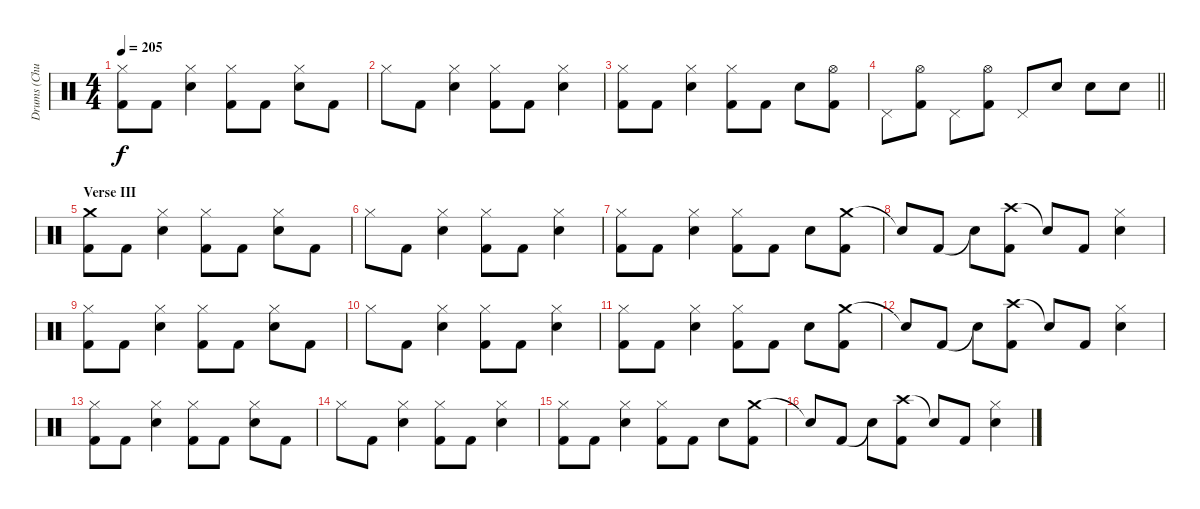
\track ("Drums (Chuck Behler)" "Drums (Chu") {instrument percussion}
\staff {score}
\articulation defaults
\ts (4 4)
\tempo 205
\clef neutral
\ks c
("Hi-Hat (closed)" "Kick (hit) 2").8{dy f} "Kick (hit) 2".8 ("Hi-Hat (closed)" "Electric Snare (hit)").4 ("Hi-Hat (closed)" "Kick (hit) 2").8 "Kick (hit) 2".8 ("Hi-Hat (closed)" "Electric Snare (hit)").8 "Kick (hit) 2".8 |
"Hi-Hat (closed)".8 "Kick (hit) 2".8 ("Hi-Hat (closed)" "Electric Snare (hit)").4 ("Hi-Hat (closed)" "Kick (hit) 2").8 "Kick (hit) 2".8 ("Hi-Hat (closed)" "Electric Snare (hit)").4 |
("Hi-Hat (closed)" "Kick (hit) 2").8 "Kick (hit) 2".8 ("Hi-Hat (closed)" "Electric Snare (hit)").4 ("Hi-Hat (closed)" "Kick (hit) 2").8 "Kick (hit) 2".8 "Electric Snare (hit)".8 ("Hi-Hat (open)" "Kick (hit) 2").8 |
\barLineRight lightlight "Pedal Hi-Hat (hit)".8
("Hi-Hat (open)" "Kick (hit) 2").8 "Pedal Hi-Hat (hit)".8 ("Hi-Hat (open)" "Kick (hit) 2").8 "Pedal Hi-Hat (hit)".8 "Electric Snare (hit)".8 "Electric Snare (hit)".8 "Electric Snare (hit)".8 |
\section ("" "Verse III")
("Crash medium (hit)" "Kick (hit) 2").8 "Kick (hit) 2".8 ("Hi-Hat (closed)" "Electric Snare (hit)").4 ("Hi-Hat (closed)" "Kick (hit) 2").8 "Kick (hit) 2".8 ("Hi-Hat (closed)" "Electric Snare (hit)").8 "Kick (hit) 2".8 |
"Hi-Hat (closed)".8 "Kick (hit) 2".8 ("Hi-Hat (closed)" "Electric Snare (hit)").4 ("Hi-Hat (closed)" "Kick (hit) 2").8 "Kick (hit) 2".8 ("Hi-Hat (closed)" "Electric Snare (hit)").4 |
("Hi-Hat (closed)" "Kick (hit) 2").8 "Kick (hit) 2".8 ("Hi-Hat (closed)" "Electric Snare (hit)").4 ("Hi-Hat (closed)" "Kick (hit) 2").8 "Kick (hit) 2".8 "Electric Snare (hit)".8 ("Crash medium (hit)" "Kick (hit) 2").8 |
"Snare (hit)"{t}.8 "Kick (hit) 2".8 "Snare (hit)"{t}.8 ("Crash high (hit)" "Kick (hit) 2").8 "Snare (hit)"{t}.8 "Kick (hit) 2".8 ("Hi-Hat (closed)" "Electric Snare (hit)").4 |
("Hi-Hat (closed)" "Kick (hit) 2").8 "Kick (hit) 2".8 ("Hi-Hat (closed)" "Electric Snare (hit)").4 ("Hi-Hat (closed)" "Kick (hit) 2").8 "Kick (hit) 2".8 ("Hi-Hat (closed)" "Electric Snare (hit)").8 "Kick (hit) 2".8 |
"Hi-Hat (closed)".8 "Kick (hit) 2".8 ("Hi-Hat (closed)" "Electric Snare (hit)").4 ("Hi-Hat (closed)" "Kick (hit) 2").8 "Kick (hit) 2".8 ("Hi-Hat (closed)" "Electric Snare (hit)").4 |
("Hi-Hat (closed)" "Kick (hit) 2").8 "Kick (hit) 2".8 ("Hi-Hat (closed)" "Electric Snare (hit)").4 ("Hi-Hat (closed)" "Kick (hit) 2").8 "Kick (hit) 2".8 "Electric Snare (hit)".8 ("Crash medium (hit)" "Kick (hit) 2").8 |
"Snare (hit)"{t}.8 "Kick (hit) 2".8 "Snare (hit)"{t}.8 ("Crash high (hit)" "Kick (hit) 2").8 "Snare (hit)"{t}.8 "Kick (hit) 2".8 ("Hi-Hat (closed)" "Electric Snare (hit)").4 |
("Hi-Hat (closed)" "Kick (hit) 2").8 "Kick (hit) 2".8 ("Hi-Hat (closed)" "Electric Snare (hit)").4 ("Hi-Hat (closed)" "Kick (hit) 2").8 "Kick (hit) 2".8 ("Hi-Hat (closed)" "Electric Snare (hit)").8 "Kick (hit) 2".8 |
"Hi-Hat (closed)".8 "Kick (hit) 2".8 ("Hi-Hat (closed)" "Electric Snare (hit)").4 ("Hi-Hat (closed)" "Kick (hit) 2").8 "Kick (hit) 2".8 ("Hi-Hat (closed)" "Electric Snare (hit)").4 |
("Hi-Hat (closed)" "Kick (hit) 2").8 "Kick (hit) 2".8 ("Hi-Hat (closed)" "Electric Snare (hit)").4 ("Hi-Hat (closed)" "Kick (hit) 2").8 "Kick (hit) 2".8 "Electric Snare (hit)".8 ("Crash medium (hit)" "Kick (hit) 2").8 |
"Snare (hit)"{t}.8 "Kick (hit) 2".8 "Snare (hit)"{t}.8 ("Crash high (hit)" "Kick (hit) 2").8 "Snare (hit)"{t}.8 "Kick (hit) 2".8 ("Hi-Hat (closed)" "Electric Snare (hit)").4
